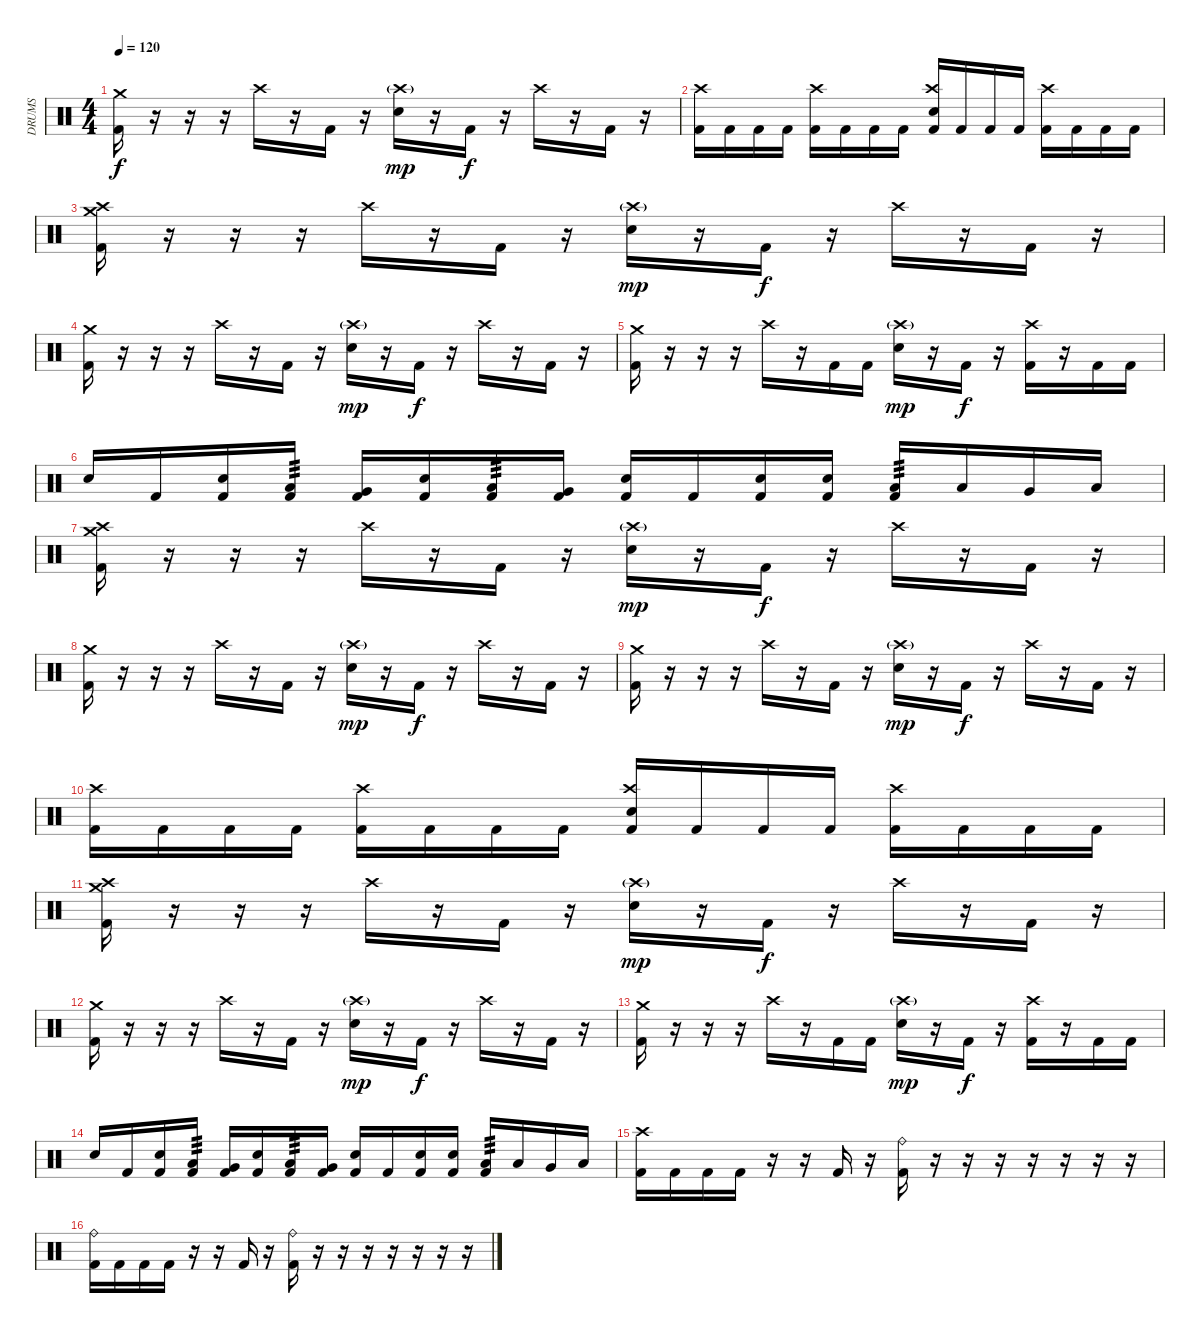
\track ("DRUMS" "DRUMS") {instrument percussion}
\staff {score}
\articulation defaults
\ts (4 4)
\tempo 120
\clef neutral
\ks c
("Crash medium (hit)" "Kick (hit) 2").16{dy f} r.16 r.16 r.16 "Crash high (hit)".16 r.16 "Kick (hit) 2".16 r.16 ("Crash high (hit)"{g} "Electric Snare (hit)").16{dy mp} r.16 "Kick (hit) 2".16{dy f} r.16 "Crash high (hit)".16 r.16 "Kick (hit) 2".16 r.16 |
("Crash high (hit)" "Kick (hit) 2").16 "Kick (hit) 2".16 "Kick (hit) 2".16 "Kick (hit) 2".16 ("Crash high (hit)" "Kick (hit) 2").16 "Kick (hit) 2".16 "Kick (hit) 2".16 "Kick (hit) 2".16 ("Crash high (hit)" "Electric Snare (hit)" "Kick (hit) 2").16 "Kick (hit) 2".16 "Kick (hit) 2".16 "Kick (hit) 2".16 ("Crash high (hit)" "Kick (hit) 2").16 "Kick (hit) 2".16 "Kick (hit) 2".16 "Kick (hit) 2".16 |
("Crash high (hit)" "Crash medium (hit)" "Kick (hit) 2").16 r.16 r.16 r.16 "Crash high (hit)".16 r.16 "Kick (hit) 2".16 r.16 ("Crash high (hit)"{g} "Electric Snare (hit)").16{dy mp} r.16 "Kick (hit) 2".16{dy f} r.16 "Crash high (hit)".16 r.16 "Kick (hit) 2".16 r.16 |
("Crash medium (hit)" "Kick (hit) 2").16 r.16 r.16 r.16 "Crash high (hit)".16 r.16 "Kick (hit) 2".16 r.16 ("Crash high (hit)"{g} "Electric Snare (hit)").16{dy mp} r.16 "Kick (hit) 2".16{dy f} r.16 "Crash high (hit)".16 r.16 "Kick (hit) 2".16 r.16 |
("Crash medium (hit)" "Kick (hit) 2").16 r.16 r.16 r.16 "Crash high (hit)".16 r.16 "Kick (hit) 2".16 "Kick (hit) 2".16 ("Crash high (hit)"{g} "Electric Snare (hit)").16{dy mp} r.16 "Kick (hit) 2".16{dy f} r.16 ("Crash high (hit)" "Kick (hit) 2").16 r.16 "Kick (hit) 2".16 "Kick (hit) 2".16 |
"Electric Snare (hit)".16 "Kick (hit) 2".16 ("Electric Snare (hit)" "Kick (hit) 2").16 ("Low Tom (hit)" "Kick (hit) 2").16{tp 3} ("Very Low Tom (hit)" "Kick (hit) 2").16 ("Electric Snare (hit)" "Kick (hit) 2").16 ("Low Tom (hit)" "Kick (hit) 2").16{tp 3} ("Very Low Tom (hit)" "Kick (hit) 2").16 ("Electric Snare (hit)" "Kick (hit) 2").16 "Kick (hit) 2".16 ("Electric Snare (hit)" "Kick (hit) 2").16 ("Electric Snare (hit)" "Kick (hit) 2").16 ("Low Tom (hit)" "Kick (hit) 2").16{tp 3} "Low Tom (hit)".16 "Very Low Tom (hit)".16 "Low Floor Tom (hit)".16 |
("Crash high (hit)" "Crash medium (hit)" "Kick (hit) 2").16 r.16 r.16 r.16 "Crash high (hit)".16 r.16 "Kick (hit) 2".16 r.16 ("Crash high (hit)"{g} "Electric Snare (hit)").16{dy mp} r.16 "Kick (hit) 2".16{dy f} r.16 "Crash high (hit)".16 r.16 "Kick (hit) 2".16 r.16 |
("Crash medium (hit)" "Kick (hit) 2").16 r.16 r.16 r.16 "Crash high (hit)".16 r.16 "Kick (hit) 2".16 r.16 ("Crash high (hit)"{g} "Electric Snare (hit)").16{dy mp} r.16 "Kick (hit) 2".16{dy f} r.16 "Crash high (hit)".16 r.16 "Kick (hit) 2".16 r.16 |
("Crash medium (hit)" "Kick (hit) 2").16 r.16 r.16 r.16 "Crash high (hit)".16 r.16 "Kick (hit) 2".16 r.16 ("Crash high (hit)"{g} "Electric Snare (hit)").16{dy mp} r.16 "Kick (hit) 2".16{dy f} r.16 "Crash high (hit)".16 r.16 "Kick (hit) 2".16 r.16 |
("Crash high (hit)" "Kick (hit) 2").16 "Kick (hit) 2".16 "Kick (hit) 2".16 "Kick (hit) 2".16 ("Crash high (hit)" "Kick (hit) 2").16 "Kick (hit) 2".16 "Kick (hit) 2".16 "Kick (hit) 2".16 ("Crash high (hit)" "Electric Snare (hit)" "Kick (hit) 2").16 "Kick (hit) 2".16 "Kick (hit) 2".16 "Kick (hit) 2".16 ("Crash high (hit)" "Kick (hit) 2").16 "Kick (hit) 2".16 "Kick (hit) 2".16 "Kick (hit) 2".16 |
("Crash high (hit)" "Crash medium (hit)" "Kick (hit) 2").16 r.16 r.16 r.16 "Crash high (hit)".16 r.16 "Kick (hit) 2".16 r.16 ("Crash high (hit)"{g} "Electric Snare (hit)").16{dy mp} r.16 "Kick (hit) 2".16{dy f} r.16 "Crash high (hit)".16 r.16 "Kick (hit) 2".16 r.16 |
("Crash medium (hit)" "Kick (hit) 2").16 r.16 r.16 r.16 "Crash high (hit)".16 r.16 "Kick (hit) 2".16 r.16 ("Crash high (hit)"{g} "Electric Snare (hit)").16{dy mp} r.16 "Kick (hit) 2".16{dy f} r.16 "Crash high (hit)".16 r.16 "Kick (hit) 2".16 r.16 |
("Crash medium (hit)" "Kick (hit) 2").16 r.16 r.16 r.16 "Crash high (hit)".16 r.16 "Kick (hit) 2".16 "Kick (hit) 2".16 ("Crash high (hit)"{g} "Electric Snare (hit)").16{dy mp} r.16 "Kick (hit) 2".16{dy f} r.16 ("Crash high (hit)" "Kick (hit) 2").16 r.16 "Kick (hit) 2".16 "Kick (hit) 2".16 |
"Electric Snare (hit)".16 "Kick (hit) 2".16 ("Electric Snare (hit)" "Kick (hit) 2").16 ("Low Tom (hit)" "Kick (hit) 2").16{tp 3} ("Very Low Tom (hit)" "Kick (hit) 2").16 ("Electric Snare (hit)" "Kick (hit) 2").16 ("Low Tom (hit)" "Kick (hit) 2").16{tp 3} ("Very Low Tom (hit)" "Kick (hit) 2").16 ("Electric Snare (hit)" "Kick (hit) 2").16 "Kick (hit) 2".16 ("Electric Snare (hit)" "Kick (hit) 2").16 ("Electric Snare (hit)" "Kick (hit) 2").16 ("Low Tom (hit)" "Kick (hit) 2").16{tp 3} "Low Tom (hit)".16 "Very Low Tom (hit)".16 "Low Floor Tom (hit)".16 |
("Crash high (hit)" "Kick (hit) 2").16 "Kick (hit) 2".16 "Kick (hit) 2".16 "Kick (hit) 2".16 r.16 r.16 "Kick (hit) 2".16 r.16 ("Ride (bell)" "Kick (hit) 2").16 r.16 r.16 r.16 r.16 r.16 r.16 r.16 |
("Ride (bell)" "Kick (hit) 2").16 "Kick (hit) 2".16 "Kick (hit) 2".16 "Kick (hit) 2".16 r.16 r.16 "Kick (hit) 2".16 r.16 ("Ride (bell)" "Kick (hit) 2").16 r.16 r.16 r.16 r.16 r.16 r.16 r.16
